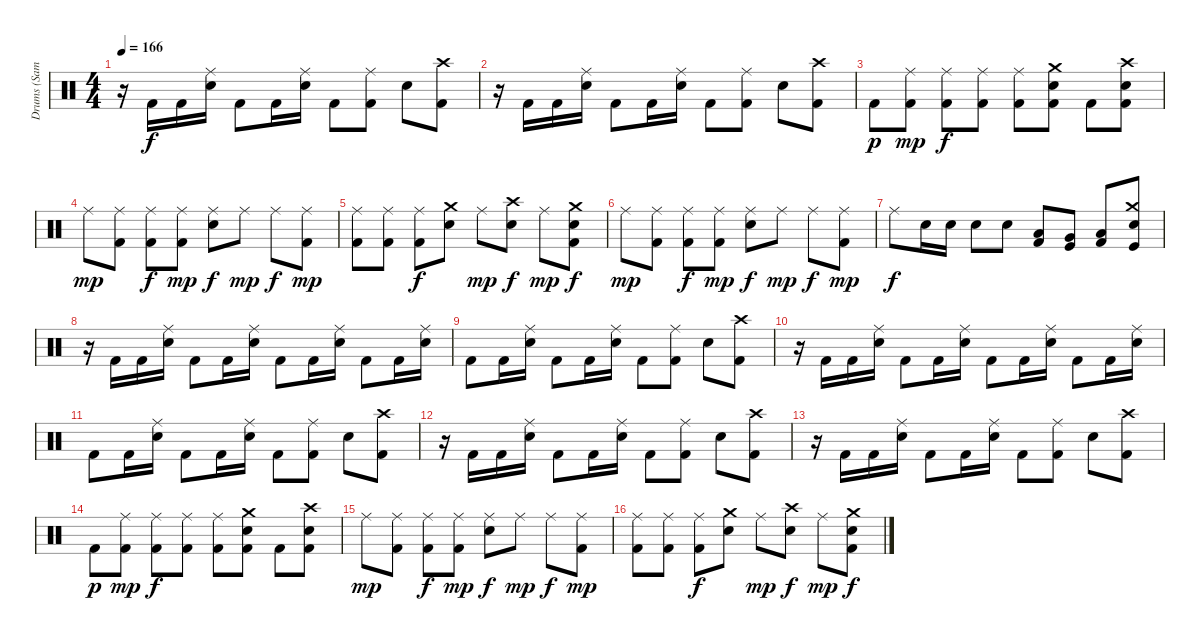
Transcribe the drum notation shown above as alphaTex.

\track ("Drums (Samuelson)" "Drums (Sam") {instrument percussion}
\staff
\articulation defaults
\ts (4 4)
\tempo 166
\clef neutral
\ks c
r.16{dy f} "Kick (hit) 2".16 "Kick (hit) 2".16 ("Ride (middle)" "Electric Snare (hit)").16 "Kick (hit) 2".8 "Kick (hit) 2".16 ("Ride (middle)" "Electric Snare (hit)").16 "Kick (hit) 2".8 ("Ride (middle)" "Kick (hit) 2").8 "Electric Snare (hit)".8 ("Crash high (hit)" "Kick (hit) 2").8 |
r.16 "Kick (hit) 2".16 "Kick (hit) 2".16 ("Ride (middle)" "Electric Snare (hit)").16 "Kick (hit) 2".8 "Kick (hit) 2".16 ("Ride (middle)" "Electric Snare (hit)").16 "Kick (hit) 2".8 ("Ride (middle)" "Kick (hit) 2").8 "Electric Snare (hit)".8 ("Crash high (hit)" "Kick (hit) 2").8 |
"Kick (hit) 2".8{dy p} ("Ride (middle)" "Kick (hit) 2").8{dy mp} ("Ride (middle)" "Kick (hit) 2").8{dy f} ("Ride (middle)" "Kick (hit) 2").8 ("Ride (middle)" "Kick (hit) 2").8 ("Crash medium (hit)" "Electric Snare (hit)" "Kick (hit) 2").8 "Kick (hit) 2".8 ("Crash high (hit)" "Electric Snare (hit)" "Kick (hit) 2").8 |
"Ride (middle)".8{dy mp} ("Ride (middle)" "Kick (hit) 2").8 ("Ride (middle)" "Kick (hit) 2").8{dy f} ("Ride (middle)" "Kick (hit) 2").8{dy mp} ("Ride (middle)" "Electric Snare (hit)").8{dy f} "Ride (middle)".8{dy mp} "Ride (middle)".8{dy f} ("Ride (middle)" "Kick (hit) 2").8{dy mp} |
("Ride (middle)" "Kick (hit) 2").8 ("Ride (middle)" "Kick (hit) 2").8 ("Ride (middle)" "Kick (hit) 2").8{dy f} ("Crash medium (hit)" "Electric Snare (hit)").8 "Ride (middle)".8{dy mp} ("Crash high (hit)" "Electric Snare (hit)").8{dy f} "Ride (middle)".8{dy mp} ("Crash medium (hit)" "Electric Snare (hit)" "Kick (hit) 2").8{dy f} |
"Ride (middle)".8{dy mp} ("Ride (middle)" "Kick (hit) 2").8 ("Ride (middle)" "Kick (hit) 2").8{dy f} ("Ride (middle)" "Kick (hit) 2").8{dy mp} ("Ride (middle)" "Electric Snare (hit)").8{dy f} "Ride (middle)".8{dy mp} "Ride (middle)".8{dy f} ("Ride (middle)" "Kick (hit) 2").8{dy mp} |
"Ride (middle)".8{dy f} "Electric Snare (hit)".16 "Electric Snare (hit)".16 "Electric Snare (hit)".8 "Electric Snare (hit)".8 ("Low Tom (hit)" "Kick (hit) 2").8 ("Very Low Tom (hit)" "Kick (hit)").8 ("Low Floor Tom (hit)" "Kick (hit) 2").8 ("Crash medium (hit)" "Electric Snare (hit)" "Kick (hit)").8 |
r.16 "Kick (hit) 2".16 "Kick (hit) 2".16 ("Ride (middle)" "Electric Snare (hit)").16 "Kick (hit) 2".8 "Kick (hit) 2".16 ("Ride (middle)" "Electric Snare (hit)").16 "Kick (hit) 2".8 "Kick (hit) 2".16 ("Ride (middle)" "Electric Snare (hit)").16 "Kick (hit) 2".8 "Kick (hit) 2".16 ("Ride (middle)" "Electric Snare (hit)").16 |
"Kick (hit) 2".8 "Kick (hit) 2".16 ("Ride (middle)" "Electric Snare (hit)").16 "Kick (hit) 2".8 "Kick (hit) 2".16 ("Ride (middle)" "Electric Snare (hit)").16 "Kick (hit) 2".8 ("Ride (middle)" "Kick (hit) 2").8 "Electric Snare (hit)".8 ("Crash high (hit)" "Kick (hit) 2").8 |
r.16 "Kick (hit) 2".16 "Kick (hit) 2".16 ("Ride (middle)" "Electric Snare (hit)").16 "Kick (hit) 2".8 "Kick (hit) 2".16 ("Ride (middle)" "Electric Snare (hit)").16 "Kick (hit) 2".8 "Kick (hit) 2".16 ("Ride (middle)" "Electric Snare (hit)").16 "Kick (hit) 2".8 "Kick (hit) 2".16 ("Ride (middle)" "Electric Snare (hit)").16 |
"Kick (hit) 2".8 "Kick (hit) 2".16 ("Ride (middle)" "Electric Snare (hit)").16 "Kick (hit) 2".8 "Kick (hit) 2".16 ("Ride (middle)" "Electric Snare (hit)").16 "Kick (hit) 2".8 ("Ride (middle)" "Kick (hit) 2").8 "Electric Snare (hit)".8 ("Crash high (hit)" "Kick (hit) 2").8 |
r.16 "Kick (hit) 2".16 "Kick (hit) 2".16 ("Ride (middle)" "Electric Snare (hit)").16 "Kick (hit) 2".8 "Kick (hit) 2".16 ("Ride (middle)" "Electric Snare (hit)").16 "Kick (hit) 2".8 ("Ride (middle)" "Kick (hit) 2").8 "Electric Snare (hit)".8 ("Crash high (hit)" "Kick (hit) 2").8 |
r.16 "Kick (hit) 2".16 "Kick (hit) 2".16 ("Ride (middle)" "Electric Snare (hit)").16 "Kick (hit) 2".8 "Kick (hit) 2".16 ("Ride (middle)" "Electric Snare (hit)").16 "Kick (hit) 2".8 ("Ride (middle)" "Kick (hit) 2").8 "Electric Snare (hit)".8 ("Crash high (hit)" "Kick (hit) 2").8 |
"Kick (hit) 2".8{dy p} ("Ride (middle)" "Kick (hit) 2").8{dy mp} ("Ride (middle)" "Kick (hit) 2").8{dy f} ("Ride (middle)" "Kick (hit) 2").8 ("Ride (middle)" "Kick (hit) 2").8 ("Crash medium (hit)" "Electric Snare (hit)" "Kick (hit) 2").8 "Kick (hit) 2".8 ("Crash high (hit)" "Electric Snare (hit)" "Kick (hit) 2").8 |
"Ride (middle)".8{dy mp} ("Ride (middle)" "Kick (hit) 2").8 ("Ride (middle)" "Kick (hit) 2").8{dy f} ("Ride (middle)" "Kick (hit) 2").8{dy mp} ("Ride (middle)" "Electric Snare (hit)").8{dy f} "Ride (middle)".8{dy mp} "Ride (middle)".8{dy f} ("Ride (middle)" "Kick (hit) 2").8{dy mp} |
("Ride (middle)" "Kick (hit) 2").8 ("Ride (middle)" "Kick (hit) 2").8 ("Ride (middle)" "Kick (hit) 2").8{dy f} ("Crash medium (hit)" "Electric Snare (hit)").8 "Ride (middle)".8{dy mp} ("Crash high (hit)" "Electric Snare (hit)").8{dy f} "Ride (middle)".8{dy mp} ("Crash medium (hit)" "Electric Snare (hit)" "Kick (hit) 2").8{dy f}
